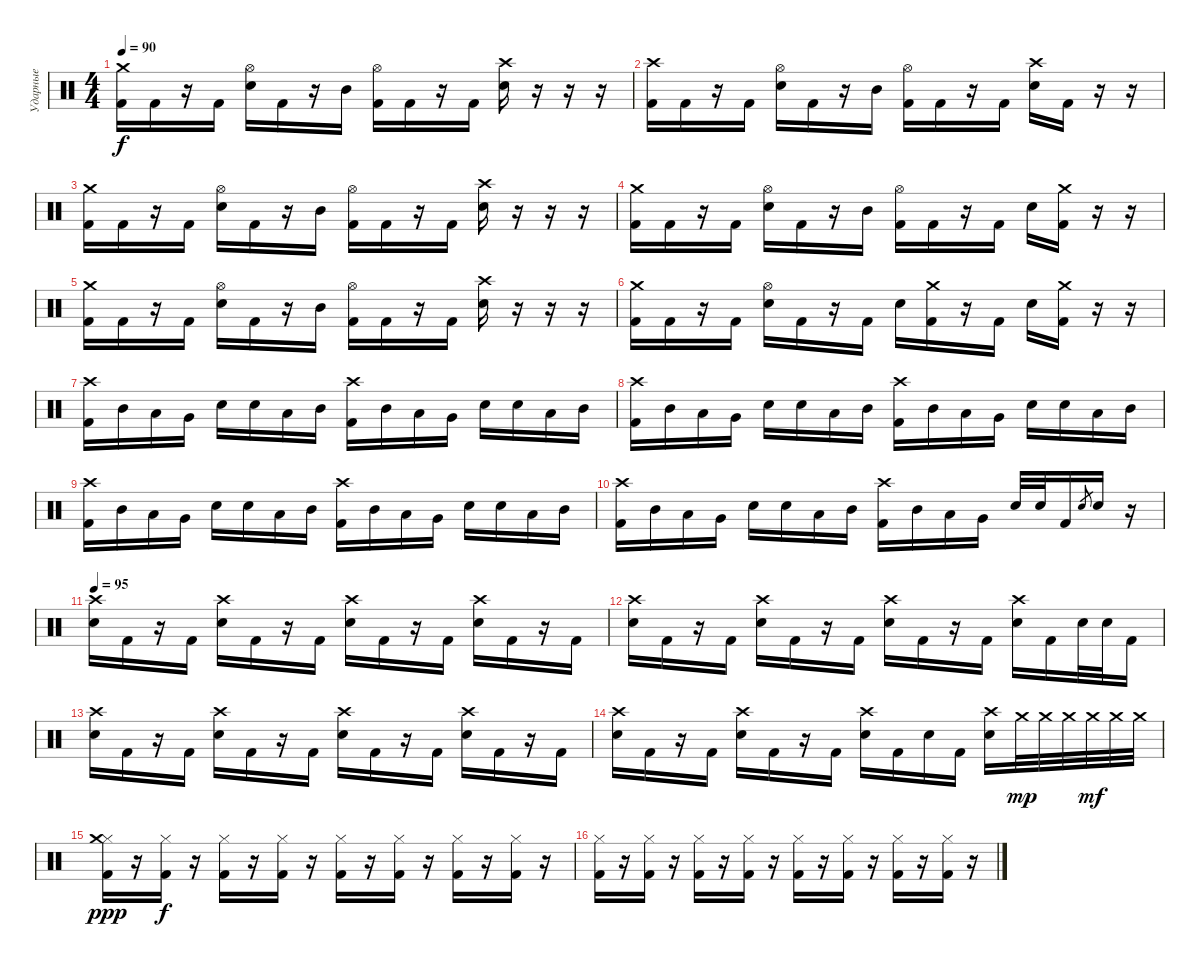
\track ("Ударные" "Ударные") {instrument percussion}
\staff {score}
\articulation defaults
\ts (4 4)
\tempo 90
\clef neutral
\ks c
("Crash medium (hit)" "Kick (hit) 2").16{dy f} "Kick (hit) 2".16 r.16 "Kick (hit) 2".16 ("Hi-Hat (open)" "Electric Snare (hit)").16 "Kick (hit) 2".16 r.16 "Mid Tom (hit)".16 ("Hi-Hat (open)" "Kick (hit) 2").16 "Kick (hit) 2".16 r.16 "Kick (hit) 2".16 ("Crash high (hit)" "Electric Snare (hit)").16 r.16 r.16 r.16 |
("Crash high (hit)" "Kick (hit) 2").16 "Kick (hit) 2".16 r.16 "Kick (hit) 2".16 ("Hi-Hat (open)" "Electric Snare (hit)").16 "Kick (hit) 2".16 r.16 "Mid Tom (hit)".16 ("Hi-Hat (open)" "Kick (hit) 2").16 "Kick (hit) 2".16 r.16 "Kick (hit) 2".16 ("Crash high (hit)" "Electric Snare (hit)").16 "Kick (hit) 2".16 r.16 r.16 |
("Crash medium (hit)" "Kick (hit) 2").16 "Kick (hit) 2".16 r.16 "Kick (hit) 2".16 ("Hi-Hat (open)" "Electric Snare (hit)").16 "Kick (hit) 2".16 r.16 "Mid Tom (hit)".16 ("Hi-Hat (open)" "Kick (hit) 2").16 "Kick (hit) 2".16 r.16 "Kick (hit) 2".16 ("Crash high (hit)" "Electric Snare (hit)").16 r.16 r.16 r.16 |
("Crash medium (hit)" "Kick (hit) 2").16 "Kick (hit) 2".16 r.16 "Kick (hit) 2".16 ("Hi-Hat (open)" "Electric Snare (hit)").16 "Kick (hit) 2".16 r.16 "Mid Tom (hit)".16 ("Hi-Hat (open)" "Kick (hit) 2").16 "Kick (hit) 2".16 r.16 "Kick (hit) 2".16 "Electric Snare (hit)".16 ("Crash medium (hit)" "Kick (hit) 2").16 r.16 r.16 |
("Crash medium (hit)" "Kick (hit) 2").16 "Kick (hit) 2".16 r.16 "Kick (hit) 2".16 ("Hi-Hat (open)" "Electric Snare (hit)").16 "Kick (hit) 2".16 r.16 "Mid Tom (hit)".16 ("Hi-Hat (open)" "Kick (hit) 2").16 "Kick (hit) 2".16 r.16 "Kick (hit) 2".16 ("Crash high (hit)" "Electric Snare (hit)").16 r.16 r.16 r.16 |
("Crash medium (hit)" "Kick (hit) 2").16 "Kick (hit) 2".16 r.16 "Kick (hit) 2".16 ("Hi-Hat (open)" "Electric Snare (hit)").16 "Kick (hit) 2".16 r.16 "Kick (hit) 2".16 "Electric Snare (hit)".16 ("Crash medium (hit)" "Kick (hit) 2").16 r.16 "Kick (hit) 2".16 "Electric Snare (hit)".16 ("Crash medium (hit)" "Kick (hit) 2").16 r.16 r.16 |
("Crash high (hit)" "Kick (hit) 2").16 "Mid Tom (hit)".16 "Low Tom (hit)".16 "Very Low Tom (hit)".16 "Electric Snare (hit)".16 "Electric Snare (hit)".16 "Low Tom (hit)".16 "Mid Tom (hit)".16 ("Crash high (hit)" "Kick (hit) 2").16 "Mid Tom (hit)".16 "Low Tom (hit)".16 "Very Low Tom (hit)".16 "Electric Snare (hit)".16 "Electric Snare (hit)".16 "Low Tom (hit)".16 "Mid Tom (hit)".16 |
("Crash high (hit)" "Kick (hit) 2").16 "Mid Tom (hit)".16 "Low Tom (hit)".16 "Very Low Tom (hit)".16 "Electric Snare (hit)".16 "Electric Snare (hit)".16 "Low Tom (hit)".16 "Mid Tom (hit)".16 ("Crash high (hit)" "Kick (hit) 2").16 "Mid Tom (hit)".16 "Low Tom (hit)".16 "Very Low Tom (hit)".16 "Electric Snare (hit)".16 "Electric Snare (hit)".16 "Low Tom (hit)".16 "Mid Tom (hit)".16 |
("Crash high (hit)" "Kick (hit) 2").16 "Mid Tom (hit)".16 "Low Tom (hit)".16 "Very Low Tom (hit)".16 "Electric Snare (hit)".16 "Electric Snare (hit)".16 "Low Tom (hit)".16 "Mid Tom (hit)".16 ("Crash high (hit)" "Kick (hit) 2").16 "Mid Tom (hit)".16 "Low Tom (hit)".16 "Very Low Tom (hit)".16 "Electric Snare (hit)".16 "Electric Snare (hit)".16 "Low Tom (hit)".16 "Mid Tom (hit)".16 |
("Crash high (hit)" "Kick (hit) 2").16 "Mid Tom (hit)".16 "Low Tom (hit)".16 "Very Low Tom (hit)".16 "Electric Snare (hit)".16 "Electric Snare (hit)".16 "Low Tom (hit)".16 "Mid Tom (hit)".16 ("Crash high (hit)" "Kick (hit) 2").16 "Mid Tom (hit)".16 "Low Tom (hit)".16 "Very Low Tom (hit)".16 "Electric Snare (hit)".32 "Electric Snare (hit)".32 "Kick (hit) 2".16 "Electric Snare (hit)".8{gr} "Electric Snare (hit)".16 r.16 |
\tempo 95
("Crash high (hit)" "Electric Snare (hit)").16 "Kick (hit) 2".16 r.16 "Kick (hit) 2".16 ("Crash high (hit)" "Electric Snare (hit)").16 "Kick (hit) 2".16 r.16 "Kick (hit) 2".16 ("Crash high (hit)" "Electric Snare (hit)").16 "Kick (hit) 2".16 r.16 "Kick (hit) 2".16 ("Crash high (hit)" "Electric Snare (hit)").16 "Kick (hit) 2".16 r.16 "Kick (hit) 2".16 |
("Crash high (hit)" "Electric Snare (hit)").16 "Kick (hit) 2".16 r.16 "Kick (hit) 2".16 ("Crash high (hit)" "Electric Snare (hit)").16 "Kick (hit) 2".16 r.16 "Kick (hit) 2".16 ("Crash high (hit)" "Electric Snare (hit)").16 "Kick (hit) 2".16 r.16 "Kick (hit) 2".16 ("Crash high (hit)" "Electric Snare (hit)").16 "Kick (hit) 2".16 "Electric Snare (hit)".32 "Electric Snare (hit)".32 "Kick (hit) 2".16 |
("Crash high (hit)" "Electric Snare (hit)").16 "Kick (hit) 2".16 r.16 "Kick (hit) 2".16 ("Crash high (hit)" "Electric Snare (hit)").16 "Kick (hit) 2".16 r.16 "Kick (hit) 2".16 ("Crash high (hit)" "Electric Snare (hit)").16 "Kick (hit) 2".16 r.16 "Kick (hit) 2".16 ("Crash high (hit)" "Electric Snare (hit)").16 "Kick (hit) 2".16 r.16 "Kick (hit) 2".16 |
("Crash high (hit)" "Electric Snare (hit)").16 "Kick (hit) 2".16 r.16 "Kick (hit) 2".16 ("Crash high (hit)" "Electric Snare (hit)").16 "Kick (hit) 2".16 r.16 "Kick (hit) 2".16 ("Crash high (hit)" "Electric Snare (hit)").16 "Kick (hit) 2".16 "Electric Snare (hit)".16 "Kick (hit) 2".16 ("Crash high (hit)" "Electric Snare (hit)").16 "Crash medium (hit)".32{dy mp} "Crash medium (hit)".32 "Crash medium (hit)".32 "Crash medium (hit)".32{dy mf} "Crash medium (hit)".32 "Crash medium (hit)".32 |
("Hi-Hat (closed)" "Crash medium (hit)" "Kick (hit) 2").16{dy ppp} r.16 ("Hi-Hat (closed)" "Kick (hit) 2").16{dy f} r.16 ("Hi-Hat (closed)" "Kick (hit) 2").16 r.16 ("Hi-Hat (closed)" "Kick (hit) 2").16 r.16 ("Hi-Hat (closed)" "Kick (hit) 2").16 r.16 ("Hi-Hat (closed)" "Kick (hit) 2").16 r.16 ("Hi-Hat (closed)" "Kick (hit) 2").16 r.16 ("Hi-Hat (closed)" "Kick (hit) 2").16 r.16 |
("Hi-Hat (closed)" "Kick (hit) 2").16 r.16 ("Hi-Hat (closed)" "Kick (hit) 2").16 r.16 ("Hi-Hat (closed)" "Kick (hit) 2").16 r.16 ("Hi-Hat (closed)" "Kick (hit) 2").16 r.16 ("Hi-Hat (closed)" "Kick (hit) 2").16 r.16 ("Hi-Hat (closed)" "Kick (hit) 2").16 r.16 ("Hi-Hat (closed)" "Kick (hit) 2").16 r.16 ("Hi-Hat (closed)" "Kick (hit) 2").16 r.16
